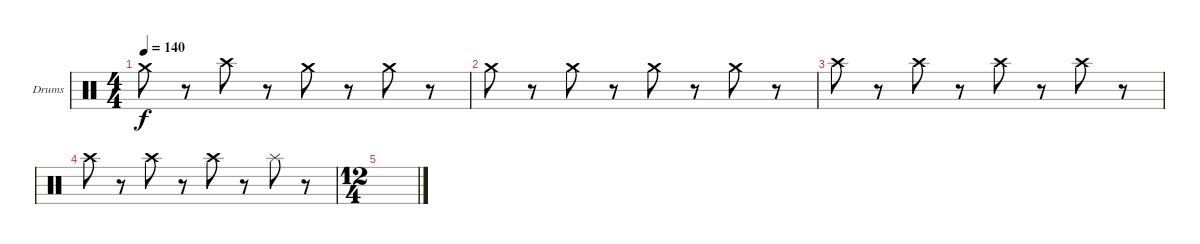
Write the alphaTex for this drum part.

\defaultSystemsLayout 4
\bracketExtendMode groupsimilarinstruments
\firstSystemTrackNameOrientation horizontal
\otherSystemsTrackNameOrientation horizontal
\track ("Drumkit" "Drums") {instrument percussion}
\staff {score}
\articulation defaults
\ts (4 4)
\tempo 140
\clef neutral
\ks c "Crash medium (hit)".8{dy f}
r.8 "Crash high (hit)".8 r.8 "Crash medium (hit)".8 r.8 "Crash medium (hit)".8 r.8 |
"Crash medium (hit)".8 r.8 "Crash medium (hit)".8 r.8 "Crash medium (hit)".8 r.8 "Crash medium (hit)".8 r.8 |
"Crash high (hit)".8 r.8 "Crash high (hit)".8 r.8 "Crash high (hit)".8 r.8 "Crash high (hit)".8 r.8 |
"Crash high (hit)".8 r.8 "Crash high (hit)".8 r.8 "Crash high (hit)".8 r.8 "Splash (hit)".8 r.8 |
\ts (12 4)
